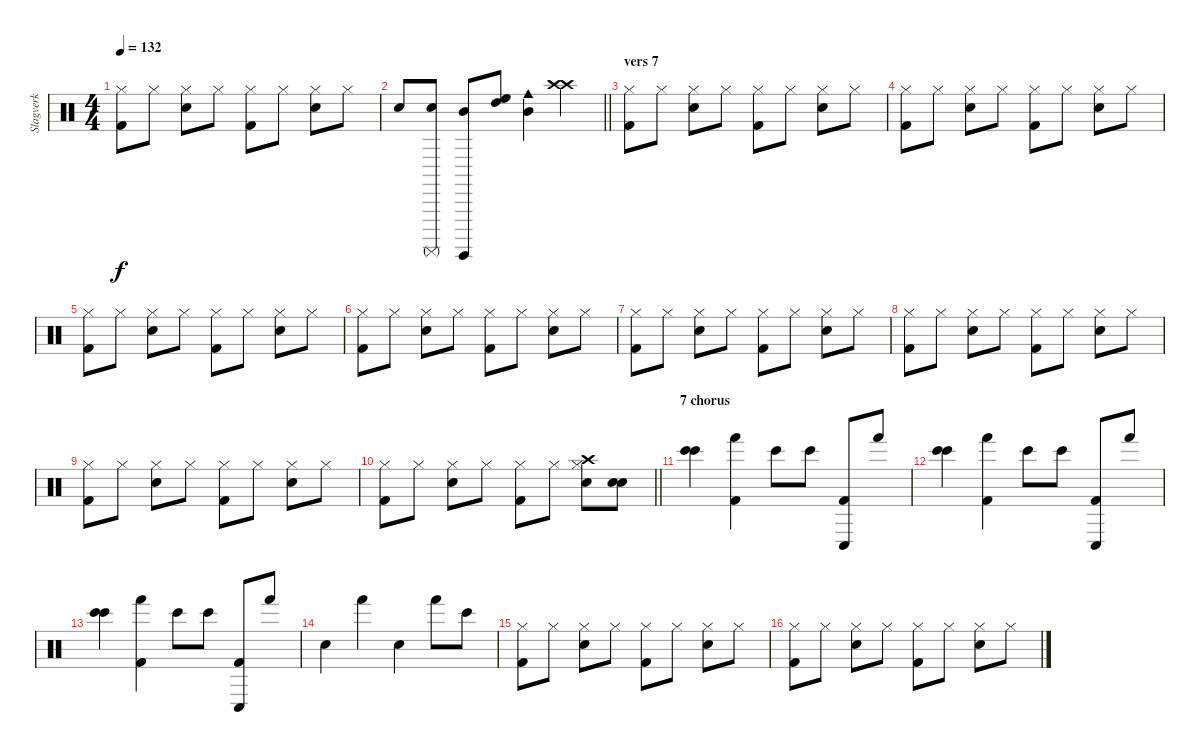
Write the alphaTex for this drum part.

\track ("Slagverk" "Slagverk") {instrument percussion}
\staff {score}
\articulation defaults
\ts (4 4)
\tempo 132
\clef neutral
\ks c
("Kick (hit) 2" "Hi-Hat (closed)").8{dy f} "Hi-Hat (closed)".8 ("Snare (hit) 2" "Hi-Hat (closed)").8 "Hi-Hat (closed)".8 ("Kick (hit) 2" "Hi-Hat (closed)").8 "Hi-Hat (closed)".8 ("Snare (hit) 2" "Hi-Hat (closed)").8 "Hi-Hat (closed)".8 |
\barLineRight lightlight "Snare (hit) 2".8
("Snare (hit) 2" "Surdo (mute)").8 ("Surdo (hit)" "Mid Tom (hit)").8 ("High Floor Tom (hit)" "High Tom (hit)").8 ("Cowbell medium (hit)" "Mid Tom (hit)").4 ("Crash high (hit)" "Crash high (hit)").4 |
\section ("" "vers 7")
("Kick (hit) 2" "Hi-Hat (closed)").8 "Hi-Hat (closed)".8 ("Snare (hit) 2" "Hi-Hat (closed)").8 "Hi-Hat (closed)".8 ("Kick (hit) 2" "Hi-Hat (closed)").8 "Hi-Hat (closed)".8 ("Snare (hit) 2" "Hi-Hat (closed)").8 "Hi-Hat (closed)".8 |
("Kick (hit) 2" "Hi-Hat (closed)").8 "Hi-Hat (closed)".8 ("Snare (hit) 2" "Hi-Hat (closed)").8 "Hi-Hat (closed)".8 ("Kick (hit) 2" "Hi-Hat (closed)").8 "Hi-Hat (closed)".8 ("Snare (hit) 2" "Hi-Hat (closed)").8 "Hi-Hat (closed)".8 |
("Kick (hit) 2" "Hi-Hat (closed)").8 "Hi-Hat (closed)".8 ("Snare (hit) 2" "Hi-Hat (closed)").8 "Hi-Hat (closed)".8 ("Kick (hit) 2" "Hi-Hat (closed)").8 "Hi-Hat (closed)".8 ("Snare (hit) 2" "Hi-Hat (closed)").8 "Hi-Hat (closed)".8 |
("Kick (hit) 2" "Hi-Hat (closed)").8 "Hi-Hat (closed)".8 ("Snare (hit) 2" "Hi-Hat (closed)").8 "Hi-Hat (closed)".8 ("Kick (hit) 2" "Hi-Hat (closed)").8 "Hi-Hat (closed)".8 ("Snare (hit) 2" "Hi-Hat (closed)").8 "Hi-Hat (closed)".8 |
("Kick (hit) 2" "Hi-Hat (closed)").8 "Hi-Hat (closed)".8 ("Snare (hit) 2" "Hi-Hat (closed)").8 "Hi-Hat (closed)".8 ("Kick (hit) 2" "Hi-Hat (closed)").8 "Hi-Hat (closed)".8 ("Snare (hit) 2" "Hi-Hat (closed)").8 "Hi-Hat (closed)".8 |
("Kick (hit) 2" "Hi-Hat (closed)").8 "Hi-Hat (closed)".8 ("Snare (hit) 2" "Hi-Hat (closed)").8 "Hi-Hat (closed)".8 ("Kick (hit) 2" "Hi-Hat (closed)").8 "Hi-Hat (closed)".8 ("Snare (hit) 2" "Hi-Hat (closed)").8 "Hi-Hat (closed)".8 |
("Kick (hit) 2" "Hi-Hat (closed)").8 "Hi-Hat (closed)".8 ("Snare (hit) 2" "Hi-Hat (closed)").8 "Hi-Hat (closed)".8 ("Kick (hit) 2" "Hi-Hat (closed)").8 "Hi-Hat (closed)".8 ("Snare (hit) 2" "Hi-Hat (closed)").8 "Hi-Hat (closed)".8 |
\barLineRight lightlight
("Kick (hit) 2" "Hi-Hat (closed)").8 "Hi-Hat (closed)".8 ("Snare (hit) 2" "Hi-Hat (closed)").8 "Hi-Hat (closed)".8 ("Kick (hit) 2" "Hi-Hat (closed)").8 "Hi-Hat (closed)".8 ("Snare (hit) 2" "Hi-Hat (closed)" "Crash high (hit)").8 ("Snare (hit) 2" "Snare (hit) 2").8{volume 14} |
\section ("" "7 chorus")
("Bongo High (hit)" "Bongo High (hit)").4 ("Kick (hit) 2" "Hand (hit)").4 "Bongo High (hit)".8 "Bongo High (hit)".8 ("Kick (hit) 2" "Conga low (hit)").8 "Hand (hit)".8 |
("Bongo High (hit)" "Bongo High (hit)").4 ("Kick (hit) 2" "Hand (hit)").4 "Bongo High (hit)".8 "Bongo High (hit)".8 ("Kick (hit) 2" "Conga low (hit)").8 "Hand (hit)".8 |
("Bongo High (hit)" "Bongo High (hit)").4 ("Kick (hit) 2" "Hand (hit)").4 "Bongo High (hit)".8 "Bongo High (hit)".8 ("Kick (hit) 2" "Conga low (hit)").8 "Hand (hit)".8 |
"Snare (hit) 2".4 "Hand (hit)".4 "Snare (hit) 2".4 "Hand (hit)".8 "Bongo High (hit)".8 |
("Kick (hit) 2" "Hi-Hat (closed)").8 "Hi-Hat (closed)".8 ("Snare (hit) 2" "Hi-Hat (closed)").8 "Hi-Hat (closed)".8 ("Kick (hit) 2" "Hi-Hat (closed)").8 "Hi-Hat (closed)".8 ("Snare (hit) 2" "Hi-Hat (closed)").8 "Hi-Hat (closed)".8 |
("Kick (hit) 2" "Hi-Hat (closed)").8 "Hi-Hat (closed)".8 ("Snare (hit) 2" "Hi-Hat (closed)").8 "Hi-Hat (closed)".8 ("Kick (hit) 2" "Hi-Hat (closed)").8 "Hi-Hat (closed)".8 ("Snare (hit) 2" "Hi-Hat (closed)").8 "Hi-Hat (closed)".8
